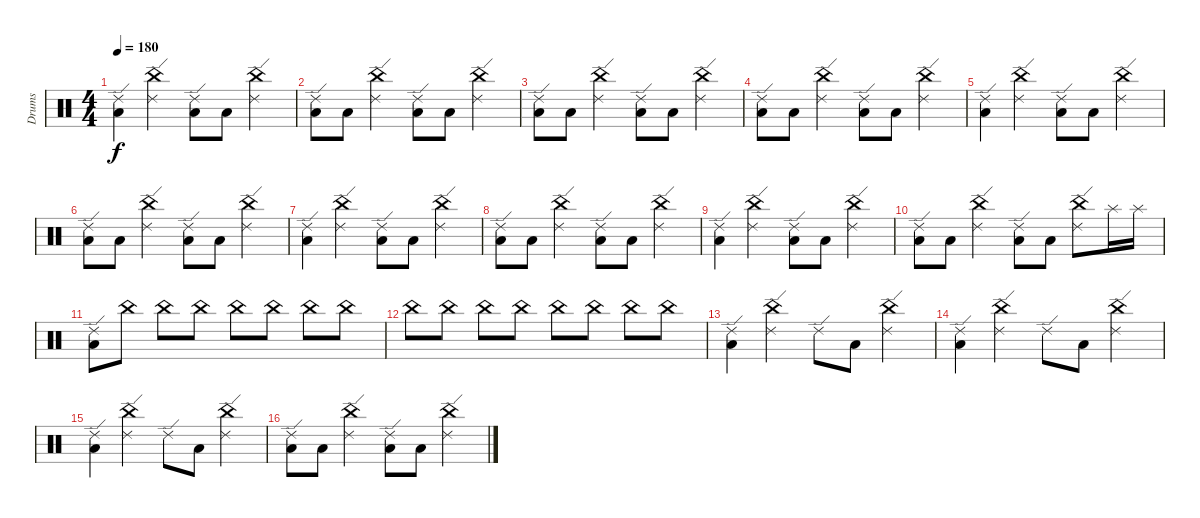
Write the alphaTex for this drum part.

\track ("Drums" "Drums") {instrument percussion}
\staff {score}
\articulation defaults
\ts (4 4)
\tempo 180
\clef neutral
\ks c
("Ride (edge) 2" "Low Tom (hit)").4{dy f} ("China (hit)" "Ride (edge) 2").4 ("Ride (edge) 2" "Low Tom (hit)").8 "Low Tom (hit)".8 ("China (hit)" "Ride (edge) 2").4 |
("Low Tom (hit)" "Ride (edge) 2").8 "Low Tom (hit)".8 ("China (hit)" "Ride (edge) 2").4 ("Low Tom (hit)" "Ride (edge) 2").8 "Low Tom (hit)".8 ("China (hit)" "Ride (edge) 2").4 |
("Low Tom (hit)" "Ride (edge) 2").8 "Low Tom (hit)".8 ("China (hit)" "Ride (edge) 2").4 ("Low Tom (hit)" "Ride (edge) 2").8 "Low Tom (hit)".8 ("China (hit)" "Ride (edge) 2").4 |
("Low Tom (hit)" "Ride (edge) 2").8 "Low Tom (hit)".8 ("China (hit)" "Ride (edge) 2").4 ("Low Tom (hit)" "Ride (edge) 2").8 "Low Tom (hit)".8 ("China (hit)" "Ride (edge) 2").4 |
("Low Tom (hit)" "Ride (edge) 2").4 ("China (hit)" "Ride (edge) 2").4 ("Low Tom (hit)" "Ride (edge) 2").8 "Low Tom (hit)".8 ("China (hit)" "Ride (edge) 2").4 |
("Low Tom (hit)" "Ride (edge) 2").8 "Low Tom (hit)".8 ("China (hit)" "Ride (edge) 2").4 ("Low Tom (hit)" "Ride (edge) 2").8 "Low Tom (hit)".8 ("China (hit)" "Ride (edge) 2").4 |
("Ride (edge) 2" "Low Tom (hit)").4 ("Ride (edge) 2" "China (hit)").4 ("Ride (edge) 2" "Low Tom (hit)").8 "Low Tom (hit)".8 ("Ride (edge) 2" "China (hit)").4 |
("Low Tom (hit)" "Ride (edge) 2").8 "Low Tom (hit)".8 ("Ride (edge) 2" "China (hit)").4 ("Ride (edge) 2" "Low Tom (hit)").8 "Low Tom (hit)".8 ("Ride (edge) 2" "China (hit)").4 |
("Low Tom (hit)" "Ride (edge) 2").4 ("China (hit)" "Ride (edge) 2").4 ("Low Tom (hit)" "Ride (edge) 2").8 "Low Tom (hit)".8 ("China (hit)" "Ride (edge) 2").4 |
("Low Tom (hit)" "Ride (edge) 2").8 "Low Tom (hit)".8 ("China (hit)" "Ride (edge) 2").4 ("Low Tom (hit)" "Ride (edge) 2").8 "Low Tom (hit)".8 ("China (hit)" "Ride (edge) 2").8 "Splash (hit)".16 "Splash (hit)".16 |
("Low Tom (hit)" "Ride (edge) 2").8 "China (hit)".8 "China (hit)".8 "China (hit)".8 "China (hit)".8 "China (hit)".8 "China (hit)".8 "China (hit)".8 |
"China (hit)".8 "China (hit)".8 "China (hit)".8 "China (hit)".8 "China (hit)".8 "China (hit)".8 "China (hit)".8 "China (hit)".8 |
("Low Tom (hit)" "Ride (edge) 2").4 ("Ride (edge) 2" "China (hit)").4 "Ride (edge) 2".8 "Low Tom (hit)".8 ("Ride (edge) 2" "China (hit)").4 |
("Low Tom (hit)" "Ride (edge) 2").4 ("Ride (edge) 2" "China (hit)").4 "Ride (edge) 2".8 "Low Tom (hit)".8 ("Ride (edge) 2" "China (hit)").4 |
("Low Tom (hit)" "Ride (edge) 2").4 ("China (hit)" "Ride (edge) 2").4 "Ride (edge) 2".8 "Low Tom (hit)".8 ("China (hit)" "Ride (edge) 2").4 |
("Low Tom (hit)" "Ride (edge) 2").8 "Low Tom (hit)".8 ("China (hit)" "Ride (edge) 2").4 ("Low Tom (hit)" "Ride (edge) 2").8 "Low Tom (hit)".8 ("China (hit)" "Ride (edge) 2").4
